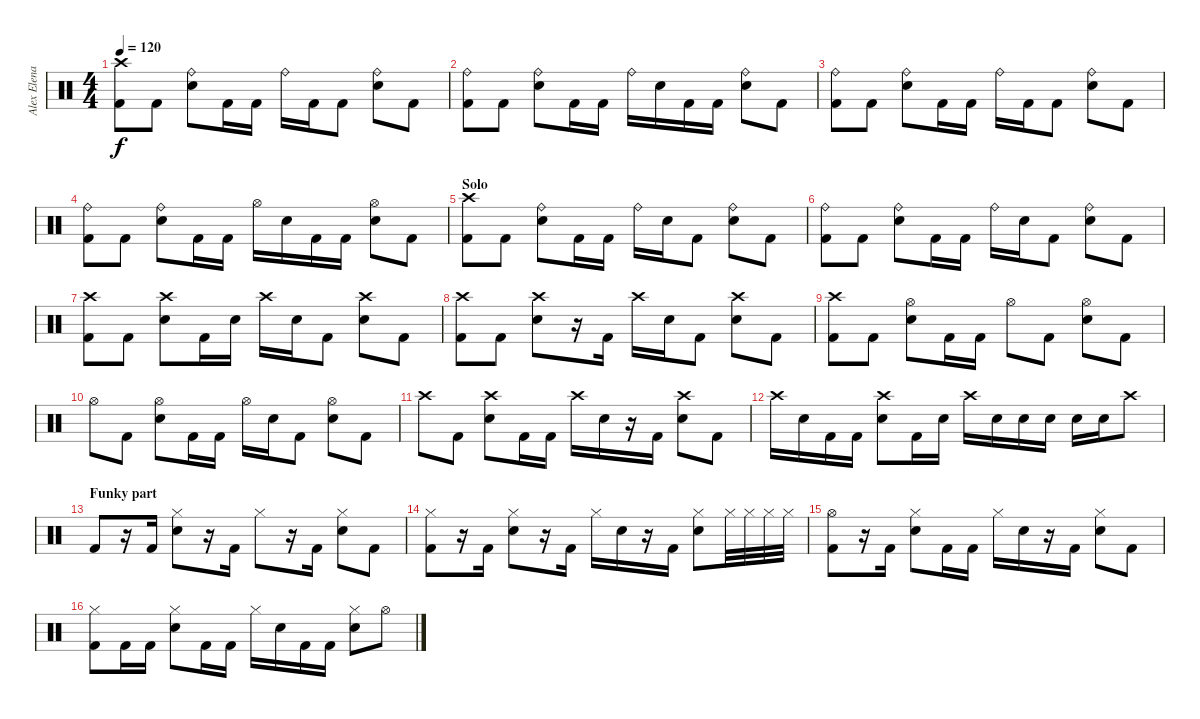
\track ("Alex Elena (Percussion)" "Alex Elena") {instrument percussion}
\staff {score}
\articulation defaults
\ts (4 4)
\tempo 120
\clef neutral
\ks c
("Crash high (hit)" "Kick (hit) 2").8{dy f} "Kick (hit) 2".8 ("Ride (bell)" "Snare (hit) 2").8 "Kick (hit) 2".16 "Kick (hit) 2".16 "Ride (bell)".16 "Kick (hit) 2".16 "Kick (hit) 2".8 ("Ride (bell)" "Snare (hit) 2").8 "Kick (hit) 2".8 |
("Ride (bell)" "Kick (hit) 2").8 "Kick (hit) 2".8 ("Ride (bell)" "Snare (hit) 2").8 "Kick (hit) 2".16 "Kick (hit) 2".16 "Ride (bell)".16 "Snare (hit) 2".16 "Kick (hit) 2".16 "Kick (hit) 2".16 ("Ride (bell)" "Snare (hit) 2").8 "Kick (hit) 2".8 |
("Ride (bell)" "Kick (hit) 2").8 "Kick (hit) 2".8 ("Ride (bell)" "Snare (hit) 2").8 "Kick (hit) 2".16 "Kick (hit) 2".16 "Ride (bell)".16 "Kick (hit) 2".16 "Kick (hit) 2".8 ("Ride (bell)" "Snare (hit) 2").8 "Kick (hit) 2".8 |
("Ride (bell)" "Kick (hit) 2").8 "Kick (hit) 2".8 ("Ride (bell)" "Snare (hit) 2").8 "Kick (hit) 2".16 "Kick (hit) 2".16 "Hi-Hat (open)".16 "Snare (hit) 2".16 "Kick (hit) 2".16 "Kick (hit) 2".16 ("Hi-Hat (open)" "Snare (hit) 2").8 "Kick (hit) 2".8 |
\section ("" "Solo")
("Crash high (hit)" "Kick (hit) 2").8 "Kick (hit) 2".8 ("Ride (bell)" "Snare (hit) 2").8 "Kick (hit) 2".16 "Kick (hit) 2".16 "Ride (bell)".16 "Snare (hit) 2".16 "Kick (hit) 2".8 ("Ride (bell)" "Snare (hit) 2").8 "Kick (hit) 2".8 |
("Ride (bell)" "Kick (hit) 2").8 "Kick (hit) 2".8 ("Ride (bell)" "Snare (hit) 2").8 "Kick (hit) 2".16 "Kick (hit) 2".16 "Ride (bell)".16 "Snare (hit) 2".16 "Kick (hit) 2".8 ("Ride (bell)" "Snare (hit) 2").8 "Kick (hit) 2".8 |
("Crash high (hit)" "Kick (hit) 2").8 "Kick (hit) 2".8 ("Crash high (hit)" "Snare (hit) 2").8 "Kick (hit) 2".16 "Snare (hit) 2".16 "Crash high (hit)".16 "Snare (hit) 2".16 "Kick (hit) 2".8 ("Crash high (hit)" "Snare (hit) 2").8 "Kick (hit) 2".8 |
("Crash high (hit)" "Kick (hit) 2").8 "Kick (hit) 2".8 ("Crash high (hit)" "Snare (hit) 2").8 r.16 "Kick (hit) 2".16 "Crash high (hit)".16 "Snare (hit) 2".16 "Kick (hit) 2".8 ("Crash high (hit)" "Snare (hit) 2").8 "Kick (hit) 2".8 |
("Crash high (hit)" "Kick (hit) 2").8 "Kick (hit) 2".8 ("Hi-Hat (open)" "Snare (hit) 2").8 "Kick (hit) 2".16 "Kick (hit) 2".16 "Hi-Hat (open)".8 "Kick (hit) 2".8 ("Hi-Hat (open)" "Snare (hit) 2").8 "Kick (hit) 2".8 |
"Hi-Hat (open)".8 "Kick (hit) 2".8 ("Hi-Hat (open)" "Snare (hit) 2").8 "Kick (hit) 2".16 "Kick (hit) 2".16 "Hi-Hat (open)".16 "Snare (hit) 2".16 "Kick (hit) 2".8 ("Hi-Hat (open)" "Snare (hit) 2").8 "Kick (hit) 2".8 |
"Crash high (hit)".8 "Kick (hit) 2".8 ("Crash high (hit)" "Snare (hit) 2").8 "Kick (hit) 2".16 "Kick (hit) 2".16 "Crash high (hit)".16 "Snare (hit) 2".16 r.16 "Kick (hit) 2".16 ("Crash high (hit)" "Snare (hit) 2").8 "Kick (hit) 2".8 |
"Crash high (hit)".16 "Snare (hit) 2".16 "Kick (hit) 2".16 "Kick (hit) 2".16 ("Crash high (hit)" "Snare (hit) 2").8 "Kick (hit) 2".16 "Snare (hit) 2".16 "Crash high (hit)".16 "Snare (hit) 2".16 "Snare (hit) 2".16 "Snare (hit) 2".16 "Snare (hit) 2".16 "Snare (hit) 2".16 "Crash high (hit)".8 |
\section ("" "Funky part")
"Kick (hit) 2".8 r.16 "Kick (hit) 2".16 ("Hi-Hat (closed)" "Snare (hit) 2").8 r.16 "Kick (hit) 2".16 "Hi-Hat (closed)".8 r.16 "Kick (hit) 2".16 ("Hi-Hat (closed)" "Snare (hit) 2").8 "Kick (hit) 2".8 |
("Hi-Hat (closed)" "Kick (hit) 2").8 r.16 "Kick (hit) 2".16 ("Hi-Hat (closed)" "Snare (hit) 2").8 r.16 "Kick (hit) 2".16 "Hi-Hat (closed)".16 "Snare (hit) 2".16 r.16 "Kick (hit) 2".16 ("Hi-Hat (closed)" "Snare (hit) 2").8 "Hi-Hat (closed)".32 "Hi-Hat (closed)".32 "Hi-Hat (closed)".32 "Hi-Hat (closed)".32 |
("Hi-Hat (open)" "Kick (hit) 2").8 r.16 "Kick (hit) 2".16 ("Hi-Hat (closed)" "Snare (hit) 2").8 "Kick (hit) 2".16 "Kick (hit) 2".16 "Hi-Hat (closed)".16 "Snare (hit) 2".16 r.16 "Kick (hit) 2".16 ("Hi-Hat (closed)" "Snare (hit) 2").8 "Kick (hit) 2".8 |
("Hi-Hat (closed)" "Kick (hit) 2").8 "Kick (hit) 2".16 "Kick (hit) 2".16 ("Hi-Hat (closed)" "Snare (hit) 2").8 "Kick (hit) 2".16 "Kick (hit) 2".16 "Hi-Hat (closed)".16 "Snare (hit) 2".16 "Kick (hit) 2".16 "Kick (hit) 2".16 ("Hi-Hat (closed)" "Snare (hit) 2").8 "Hi-Hat (open)".8
